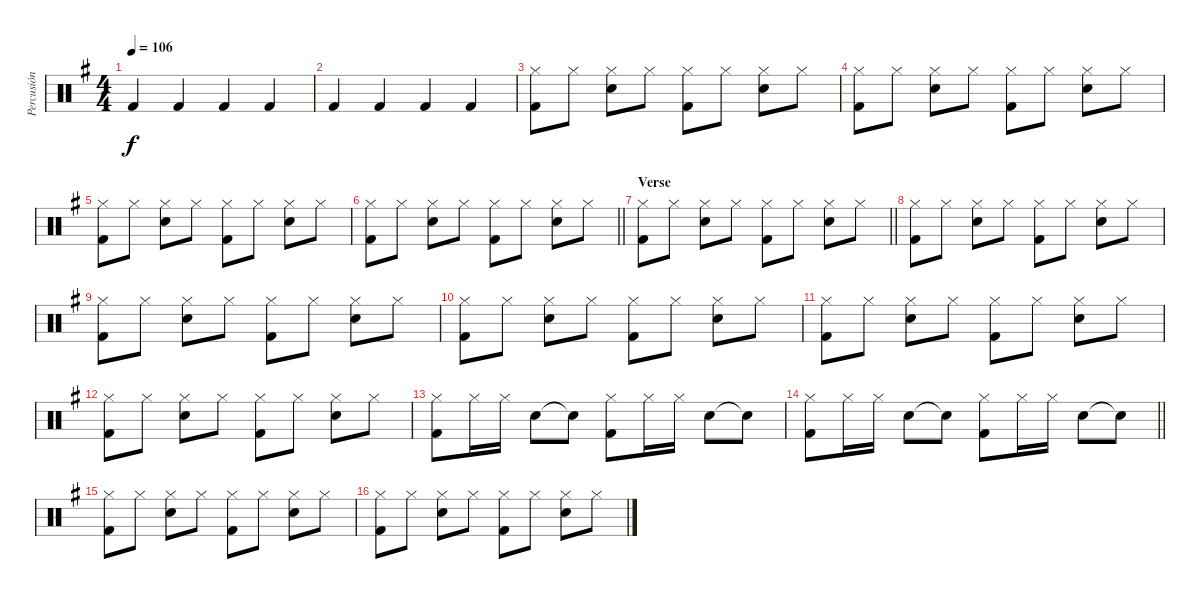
\track ("Percusión" "Percusión") {instrument percussion}
\staff {score}
\articulation defaults
\ts (4 4)
\tempo 106
\clef neutral
\ks g "Kick (hit) 2".4{dy f} "Kick (hit) 2".4 "Kick (hit) 2".4 "Kick (hit) 2".4
|
"Kick (hit) 2".4 "Kick (hit) 2".4 "Kick (hit) 2".4 "Kick (hit) 2".4 |
("Kick (hit) 2" "Hi-Hat (closed)").8 "Hi-Hat (closed)".8 ("Electric Snare (hit)" "Hi-Hat (closed)").8 "Hi-Hat (closed)".8 ("Kick (hit) 2" "Hi-Hat (closed)").8 "Hi-Hat (closed)".8 ("Electric Snare (hit)" "Hi-Hat (closed)").8 "Hi-Hat (closed)".8 |
("Kick (hit) 2" "Hi-Hat (closed)").8 "Hi-Hat (closed)".8 ("Electric Snare (hit)" "Hi-Hat (closed)").8 "Hi-Hat (closed)".8 ("Kick (hit) 2" "Hi-Hat (closed)").8 "Hi-Hat (closed)".8 ("Electric Snare (hit)" "Hi-Hat (closed)").8 "Hi-Hat (closed)".8 |
("Kick (hit) 2" "Hi-Hat (closed)").8 "Hi-Hat (closed)".8 ("Electric Snare (hit)" "Hi-Hat (closed)").8 "Hi-Hat (closed)".8 ("Kick (hit) 2" "Hi-Hat (closed)").8 "Hi-Hat (closed)".8 ("Electric Snare (hit)" "Hi-Hat (closed)").8 "Hi-Hat (closed)".8 |
\barLineRight lightlight
("Kick (hit) 2" "Hi-Hat (closed)").8 "Hi-Hat (closed)".8 ("Electric Snare (hit)" "Hi-Hat (closed)").8 "Hi-Hat (closed)".8 ("Kick (hit) 2" "Hi-Hat (closed)").8 "Hi-Hat (closed)".8 ("Electric Snare (hit)" "Hi-Hat (closed)").8 "Hi-Hat (closed)".8 |
\section ("" "Verse")
\barLineRight lightlight
("Kick (hit) 2" "Hi-Hat (closed)").8 "Hi-Hat (closed)".8 ("Electric Snare (hit)" "Hi-Hat (closed)").8 "Hi-Hat (closed)".8 ("Kick (hit) 2" "Hi-Hat (closed)").8 "Hi-Hat (closed)".8 ("Electric Snare (hit)" "Hi-Hat (closed)").8 "Hi-Hat (closed)".8 |
("Kick (hit) 2" "Hi-Hat (closed)").8 "Hi-Hat (closed)".8 ("Electric Snare (hit)" "Hi-Hat (closed)").8 "Hi-Hat (closed)".8 ("Kick (hit) 2" "Hi-Hat (closed)").8 "Hi-Hat (closed)".8 ("Electric Snare (hit)" "Hi-Hat (closed)").8 "Hi-Hat (closed)".8 |
("Kick (hit) 2" "Hi-Hat (closed)").8 "Hi-Hat (closed)".8 ("Electric Snare (hit)" "Hi-Hat (closed)").8 "Hi-Hat (closed)".8 ("Kick (hit) 2" "Hi-Hat (closed)").8 "Hi-Hat (closed)".8 ("Electric Snare (hit)" "Hi-Hat (closed)").8 "Hi-Hat (closed)".8 |
("Kick (hit) 2" "Hi-Hat (closed)").8 "Hi-Hat (closed)".8 ("Electric Snare (hit)" "Hi-Hat (closed)").8 "Hi-Hat (closed)".8 ("Kick (hit) 2" "Hi-Hat (closed)").8 "Hi-Hat (closed)".8 ("Electric Snare (hit)" "Hi-Hat (closed)").8 "Hi-Hat (closed)".8 |
("Kick (hit) 2" "Hi-Hat (closed)").8 "Hi-Hat (closed)".8 ("Electric Snare (hit)" "Hi-Hat (closed)").8 "Hi-Hat (closed)".8 ("Kick (hit) 2" "Hi-Hat (closed)").8 "Hi-Hat (closed)".8 ("Electric Snare (hit)" "Hi-Hat (closed)").8 "Hi-Hat (closed)".8 |
("Kick (hit) 2" "Hi-Hat (closed)").8 "Hi-Hat (closed)".8 ("Electric Snare (hit)" "Hi-Hat (closed)").8 "Hi-Hat (closed)".8 ("Kick (hit) 2" "Hi-Hat (closed)").8 "Hi-Hat (closed)".8 ("Electric Snare (hit)" "Hi-Hat (closed)").8 "Hi-Hat (closed)".8 |
("Kick (hit) 2" "Hi-Hat (closed)").8 "Hi-Hat (closed)".16 "Hi-Hat (closed)".16 "Electric Snare (hit)".8 "Electric Snare (hit)"{t}.8 ("Kick (hit) 2" "Hi-Hat (closed)").8 "Hi-Hat (closed)".16 "Hi-Hat (closed)".16 "Electric Snare (hit)".8 "Electric Snare (hit)"{t}.8 |
\barLineRight lightlight
("Kick (hit) 2" "Hi-Hat (closed)").8 "Hi-Hat (closed)".16 "Hi-Hat (closed)".16 "Electric Snare (hit)".8 "Electric Snare (hit)"{t}.8 ("Kick (hit) 2" "Hi-Hat (closed)").8 "Hi-Hat (closed)".16 "Hi-Hat (closed)".16 "Electric Snare (hit)".8 "Electric Snare (hit)"{t}.8 |
("Kick (hit) 2" "Hi-Hat (closed)").8 "Hi-Hat (closed)".8 ("Electric Snare (hit)" "Hi-Hat (closed)").8 "Hi-Hat (closed)".8 ("Kick (hit) 2" "Hi-Hat (closed)").8 "Hi-Hat (closed)".8 ("Electric Snare (hit)" "Hi-Hat (closed)").8 "Hi-Hat (closed)".8 |
("Kick (hit) 2" "Hi-Hat (closed)").8 "Hi-Hat (closed)".8 ("Electric Snare (hit)" "Hi-Hat (closed)").8 "Hi-Hat (closed)".8 ("Kick (hit) 2" "Hi-Hat (closed)").8 "Hi-Hat (closed)".8 ("Electric Snare (hit)" "Hi-Hat (closed)").8 "Hi-Hat (closed)".8
